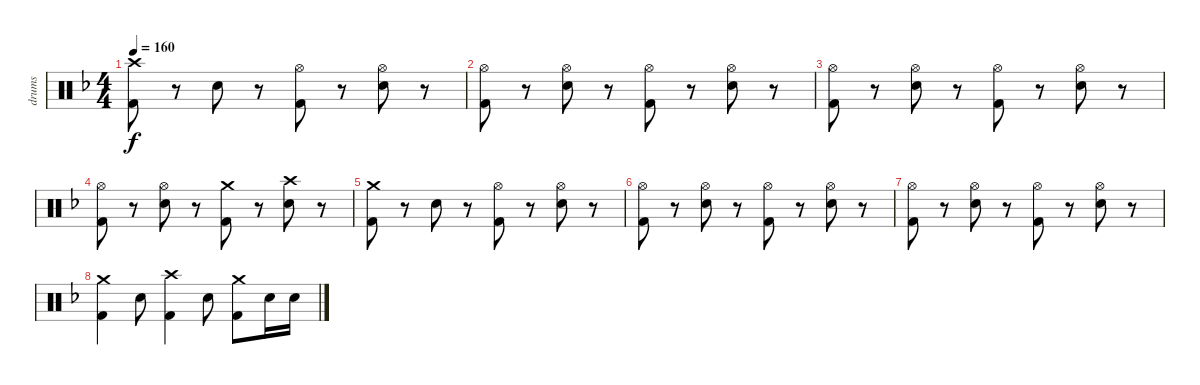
\track ("drums" "drums") {instrument percussion}
\staff {score}
\articulation defaults
\ts (4 4)
\tempo 160
\clef neutral
\ks f
("Crash high (hit)" "Kick (hit) 2").8{dy f} r.8 "Electric Snare (hit)".8 r.8 ("Hi-Hat (open)" "Kick (hit) 2").8 r.8 ("Hi-Hat (open)" "Electric Snare (hit)").8 r.8 |
("Hi-Hat (open)" "Kick (hit) 2").8 r.8 ("Hi-Hat (open)" "Electric Snare (hit)").8 r.8 ("Hi-Hat (open)" "Kick (hit) 2").8 r.8 ("Hi-Hat (open)" "Electric Snare (hit)").8 r.8 |
("Hi-Hat (open)" "Kick (hit) 2").8 r.8 ("Hi-Hat (open)" "Electric Snare (hit)").8 r.8 ("Hi-Hat (open)" "Kick (hit) 2").8 r.8 ("Hi-Hat (open)" "Electric Snare (hit)").8 r.8 |
("Hi-Hat (open)" "Kick (hit) 2").8 r.8 ("Hi-Hat (open)" "Electric Snare (hit)").8 r.8 ("Crash medium (hit)" "Kick (hit) 2").8 r.8 ("Crash high (hit)" "Electric Snare (hit)").8 r.8 |
("Crash medium (hit)" "Kick (hit) 2").8 r.8 "Electric Snare (hit)".8 r.8 ("Hi-Hat (open)" "Kick (hit) 2").8 r.8 ("Hi-Hat (open)" "Electric Snare (hit)").8 r.8 |
("Hi-Hat (open)" "Kick (hit) 2").8 r.8 ("Hi-Hat (open)" "Electric Snare (hit)").8 r.8 ("Hi-Hat (open)" "Kick (hit) 2").8 r.8 ("Hi-Hat (open)" "Electric Snare (hit)").8 r.8 |
("Hi-Hat (open)" "Kick (hit) 2").8 r.8 ("Hi-Hat (open)" "Electric Snare (hit)").8 r.8 ("Hi-Hat (open)" "Kick (hit) 2").8 r.8 ("Hi-Hat (open)" "Electric Snare (hit)").8 r.8 |
("Crash medium (hit)" "Kick (hit) 2").4 "Electric Snare (hit)".8 ("Crash high (hit)" "Kick (hit) 2").4 "Electric Snare (hit)".8 ("Crash medium (hit)" "Kick (hit) 2").8 "Electric Snare (hit)".16 "Electric Snare (hit)".16
